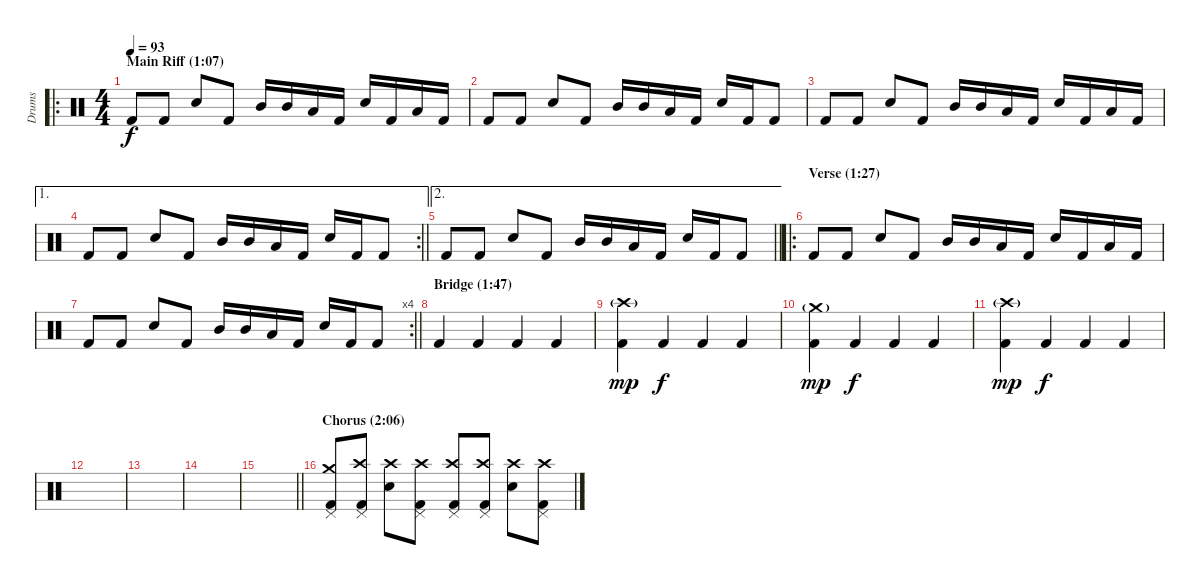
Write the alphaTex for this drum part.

\track ("Drums" "Drums") {instrument percussion}
\staff {score}
\articulation defaults
\ro
\ts (4 4)
\section ("" "Main Riff (1:07)")
\tempo 93
\clef neutral
\ks c "Kick (hit) 2".8{dy f} "Kick (hit) 2".8 "Electric Snare (hit)".8 "Kick (hit) 2".8 "Mid Tom (hit)".16 "Mid Tom (hit)".16 "Low Tom (hit)".16 "Kick (hit) 2".16 "Electric Snare (hit)".16 "Kick (hit) 2".16 "Low Tom (hit)".16 "Kick (hit) 2".16
|
"Kick (hit) 2".8 "Kick (hit) 2".8 "Electric Snare (hit)".8 "Kick (hit) 2".8 "Mid Tom (hit)".16 "Mid Tom (hit)".16 "Low Tom (hit)".16 "Kick (hit) 2".16 "Electric Snare (hit)".16 "Kick (hit) 2".16 "Kick (hit) 2".8 |
"Kick (hit) 2".8 "Kick (hit) 2".8 "Electric Snare (hit)".8 "Kick (hit) 2".8 "Mid Tom (hit)".16 "Mid Tom (hit)".16 "Low Tom (hit)".16 "Kick (hit) 2".16 "Electric Snare (hit)".16 "Kick (hit) 2".16 "Low Tom (hit)".16 "Kick (hit) 2".16 |
\ae 1
\rc 2
\barLineRight lightlight "Kick (hit) 2".8 "Kick (hit) 2".8 "Electric Snare (hit)".8 "Kick (hit) 2".8 "Mid Tom (hit)".16 "Mid Tom (hit)".16 "Low Tom (hit)".16 "Kick (hit) 2".16 "Electric Snare (hit)".16 "Kick (hit) 2".16 "Kick (hit) 2".8
|
\ae 2
\barLineRight lightlight "Kick (hit) 2".8 "Kick (hit) 2".8 "Electric Snare (hit)".8 "Kick (hit) 2".8 "Mid Tom (hit)".16 "Mid Tom (hit)".16 "Low Tom (hit)".16 "Kick (hit) 2".16 "Electric Snare (hit)".16 "Kick (hit) 2".16 "Kick (hit) 2".8
|
\ro
\section ("" "Verse (1:27)")
"Kick (hit) 2".8 "Kick (hit) 2".8 "Electric Snare (hit)".8 "Kick (hit) 2".8 "Mid Tom (hit)".16 "Mid Tom (hit)".16 "Low Tom (hit)".16 "Kick (hit) 2".16 "Electric Snare (hit)".16 "Kick (hit) 2".16 "Low Tom (hit)".16 "Kick (hit) 2".16 |
\rc 4
\barLineRight lightlight "Kick (hit) 2".8 "Kick (hit) 2".8 "Electric Snare (hit)".8 "Kick (hit) 2".8 "Mid Tom (hit)".16 "Mid Tom (hit)".16 "Low Tom (hit)".16 "Kick (hit) 2".16 "Electric Snare (hit)".16 "Kick (hit) 2".16 "Kick (hit) 2".8
|
\section ("" "Bridge (1:47)")
"Kick (hit) 2".4 "Kick (hit) 2".4 "Kick (hit) 2".4 "Kick (hit) 2".4 |
("Crash high (hit)"{g} "Kick (hit) 2").4{dy mp} "Kick (hit) 2".4{dy f} "Kick (hit) 2".4 "Kick (hit) 2".4 |
("Crash medium (hit)"{g} "Kick (hit) 2").4{dy mp} "Kick (hit) 2".4{dy f} "Kick (hit) 2".4 "Kick (hit) 2".4 |
("Crash high (hit)"{g} "Kick (hit) 2").4{dy mp} "Kick (hit) 2".4{dy f} "Kick (hit) 2".4 "Kick (hit) 2".4 |
|
|
|
\barLineRight lightlight
|
\section ("" "Chorus (2:06)")
("Crash medium (hit)" "Pedal Hi-Hat (hit)" "Kick (hit) 2").8 ("Crash high (hit)" "Pedal Hi-Hat (hit)" "Kick (hit) 2").8 ("Crash high (hit)" "Electric Snare (hit)").8 ("Crash high (hit)" "Pedal Hi-Hat (hit)" "Kick (hit) 2").8 ("Crash high (hit)" "Pedal Hi-Hat (hit)" "Kick (hit) 2").8 ("Crash high (hit)" "Pedal Hi-Hat (hit)" "Kick (hit) 2").8 ("Crash high (hit)" "Electric Snare (hit)").8 ("Crash high (hit)" "Pedal Hi-Hat (hit)" "Kick (hit) 2").8
